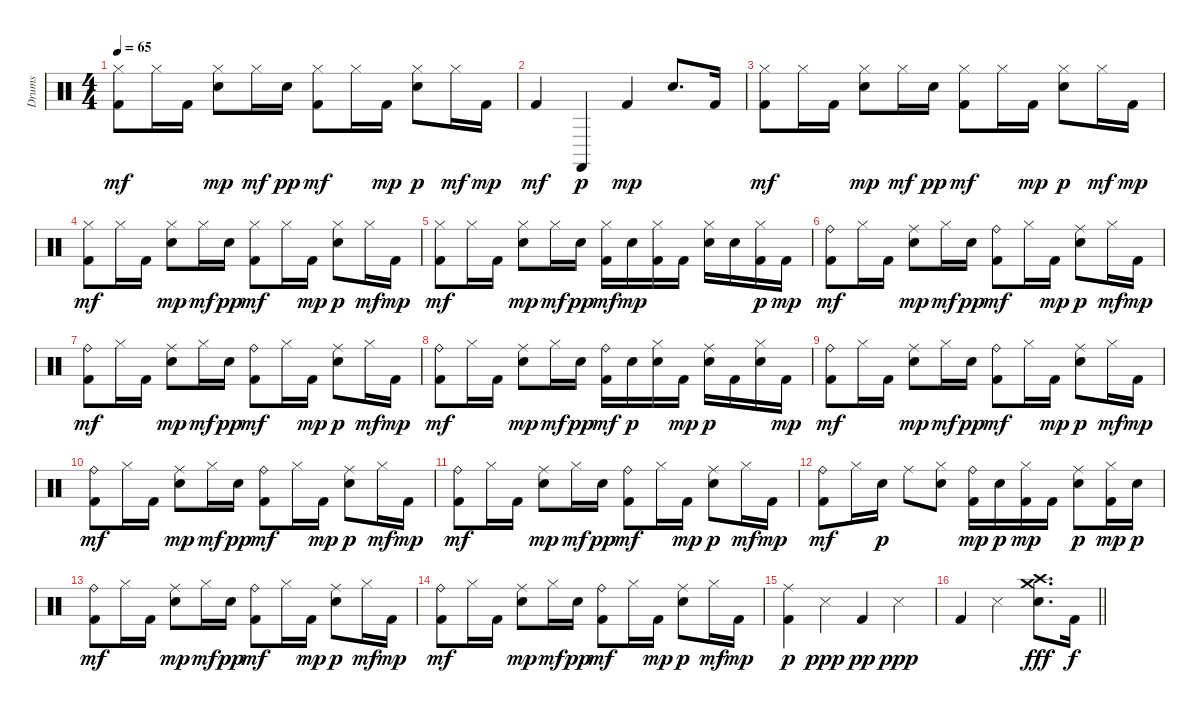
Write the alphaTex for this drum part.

\track ("Drums" "Drums") {instrument percussion}
\staff {score}
\articulation defaults
\ts (4 4)
\tempo 65
\clef neutral
\ks c
("Hi-Hat (closed)" "Kick (hit) 2").8{dy mf} "Hi-Hat (closed)".16 "Kick (hit) 2".16 ("Hi-Hat (closed)" "Electric Snare (hit)").8{dy mp} "Hi-Hat (closed)".16{dy mf} "Electric Snare (hit)".16{dy pp} ("Hi-Hat (closed)" "Kick (hit) 2").8{dy mf} "Hi-Hat (closed)".16 "Kick (hit) 2".16{dy mp} ("Hi-Hat (closed)" "Electric Snare (hit)").8{dy p} "Hi-Hat (closed)".16{dy mf} "Kick (hit) 2".16{dy mp} |
"Kick (hit) 2".4{dy mf} "Castanets (hit)".4{dy p} "Kick (hit) 2".4{dy mp} "Electric Snare (hit)".8{d} "Kick (hit) 2".16 |
("Hi-Hat (closed)" "Kick (hit) 2").8{dy mf} "Hi-Hat (closed)".16 "Kick (hit) 2".16 ("Hi-Hat (closed)" "Electric Snare (hit)").8{dy mp} "Hi-Hat (closed)".16{dy mf} "Electric Snare (hit)".16{dy pp} ("Hi-Hat (closed)" "Kick (hit) 2").8{dy mf} "Hi-Hat (closed)".16 "Kick (hit) 2".16{dy mp} ("Hi-Hat (closed)" "Electric Snare (hit)").8{dy p} "Hi-Hat (closed)".16{dy mf} "Kick (hit) 2".16{dy mp} |
("Hi-Hat (closed)" "Kick (hit) 2").8{dy mf} "Hi-Hat (closed)".16 "Kick (hit) 2".16 ("Hi-Hat (closed)" "Electric Snare (hit)").8{dy mp} "Hi-Hat (closed)".16{dy mf} "Electric Snare (hit)".16{dy pp} ("Hi-Hat (closed)" "Kick (hit) 2").8{dy mf} "Hi-Hat (closed)".16 "Kick (hit) 2".16{dy mp} ("Hi-Hat (closed)" "Electric Snare (hit)").8{dy p} "Hi-Hat (closed)".16{dy mf} "Kick (hit) 2".16{dy mp} |
("Hi-Hat (closed)" "Kick (hit) 2").8{dy mf} "Hi-Hat (closed)".16 "Kick (hit) 2".16 ("Hi-Hat (closed)" "Electric Snare (hit)").8{dy mp} "Hi-Hat (closed)".16{dy mf} "Electric Snare (hit)".16{dy pp} ("Hi-Hat (closed)" "Kick (hit) 2").16{dy mf} "Electric Snare (hit)".16{dy mp} ("Hi-Hat (closed)" "Kick (hit) 2").16 "Kick (hit) 2".16 ("Hi-Hat (closed)" "Electric Snare (hit)").16 "Electric Snare (hit)".16 ("Hi-Hat (closed)" "Kick (hit) 2").16{dy p} "Kick (hit) 2".16{dy mp} |
("Ride (bell)" "Kick (hit) 2").8{dy mf} "Hi-Hat (closed)".16 "Kick (hit) 2".16 ("Ride (middle)" "Electric Snare (hit)").8{dy mp} "Hi-Hat (closed)".16{dy mf} "Electric Snare (hit)".16{dy pp} ("Ride (bell)" "Kick (hit) 2").8{dy mf} "Hi-Hat (closed)".16 "Kick (hit) 2".16{dy mp} ("Ride (middle)" "Electric Snare (hit)").8{dy p} "Hi-Hat (closed)".16{dy mf} "Kick (hit) 2".16{dy mp} |
("Ride (bell)" "Kick (hit) 2").8{dy mf} "Hi-Hat (closed)".16 "Kick (hit) 2".16 ("Ride (middle)" "Electric Snare (hit)").8{dy mp} "Hi-Hat (closed)".16{dy mf} "Electric Snare (hit)".16{dy pp} ("Ride (bell)" "Kick (hit) 2").8{dy mf} "Hi-Hat (closed)".16 "Kick (hit) 2".16{dy mp} ("Ride (middle)" "Electric Snare (hit)").8{dy p} "Hi-Hat (closed)".16{dy mf} "Kick (hit) 2".16{dy mp} |
("Ride (bell)" "Kick (hit) 2").8{dy mf} "Hi-Hat (closed)".16 "Kick (hit) 2".16 ("Ride (middle)" "Electric Snare (hit)").8{dy mp} "Hi-Hat (closed)".16{dy mf} "Electric Snare (hit)".16{dy pp} ("Ride (bell)" "Kick (hit) 2").16{dy mf} "Electric Snare (hit)".16{dy p} ("Hi-Hat (closed)" "Electric Snare (hit)").16 "Kick (hit) 2".16{dy mp} ("Ride (middle)" "Electric Snare (hit)").16{dy p} "Kick (hit) 2".16 ("Hi-Hat (closed)" "Electric Snare (hit)").16 "Kick (hit) 2".16{dy mp} |
("Ride (bell)" "Kick (hit) 2").8{dy mf} "Hi-Hat (closed)".16 "Kick (hit) 2".16 ("Ride (middle)" "Electric Snare (hit)").8{dy mp} "Hi-Hat (closed)".16{dy mf} "Electric Snare (hit)".16{dy pp} ("Ride (bell)" "Kick (hit) 2").8{dy mf} "Hi-Hat (closed)".16 "Kick (hit) 2".16{dy mp} ("Ride (middle)" "Electric Snare (hit)").8{dy p} "Hi-Hat (closed)".16{dy mf} "Kick (hit) 2".16{dy mp} |
("Ride (bell)" "Kick (hit) 2").8{dy mf} "Hi-Hat (closed)".16 "Kick (hit) 2".16 ("Ride (middle)" "Electric Snare (hit)").8{dy mp} "Hi-Hat (closed)".16{dy mf} "Electric Snare (hit)".16{dy pp} ("Ride (bell)" "Kick (hit) 2").8{dy mf} "Hi-Hat (closed)".16 "Kick (hit) 2".16{dy mp} ("Ride (middle)" "Electric Snare (hit)").8{dy p} "Hi-Hat (closed)".16{dy mf} "Kick (hit) 2".16{dy mp} |
("Ride (bell)" "Kick (hit) 2").8{dy mf} "Hi-Hat (closed)".16 "Kick (hit) 2".16 ("Ride (middle)" "Electric Snare (hit)").8{dy mp} "Hi-Hat (closed)".16{dy mf} "Electric Snare (hit)".16{dy pp} ("Ride (bell)" "Kick (hit) 2").8{dy mf} "Hi-Hat (closed)".16 "Kick (hit) 2".16{dy mp} ("Ride (middle)" "Electric Snare (hit)").8{dy p} "Hi-Hat (closed)".16{dy mf} "Kick (hit) 2".16{dy mp} |
("Ride (bell)" "Kick (hit) 2").8{dy mf} "Hi-Hat (closed)".16 "Electric Snare (hit)".16{dy p} "Ride (middle)".8 ("Hi-Hat (closed)" "Electric Snare (hit)").8 ("Ride (bell)" "Kick (hit) 2").16{dy mp} "Electric Snare (hit)".16{dy p} ("Hi-Hat (closed)" "Kick (hit) 2").16{dy mp} "Kick (hit) 2".16 ("Ride (middle)" "Electric Snare (hit)").8{dy p} ("Hi-Hat (closed)" "Kick (hit) 2").16{dy mp} "Electric Snare (hit)".16{dy p} |
("Ride (bell)" "Kick (hit) 2").8{dy mf} "Hi-Hat (closed)".16 "Kick (hit) 2".16 ("Ride (middle)" "Electric Snare (hit)").8{dy mp} "Hi-Hat (closed)".16{dy mf} "Electric Snare (hit)".16{dy pp} ("Ride (bell)" "Kick (hit) 2").8{dy mf} "Hi-Hat (closed)".16 "Kick (hit) 2".16{dy mp} ("Ride (middle)" "Electric Snare (hit)").8{dy p} "Hi-Hat (closed)".16{dy mf} "Kick (hit) 2".16{dy mp} |
("Ride (bell)" "Kick (hit) 2").8{dy mf} "Hi-Hat (closed)".16 "Kick (hit) 2".16 ("Ride (middle)" "Electric Snare (hit)").8{dy mp} "Hi-Hat (closed)".16{dy mf} "Electric Snare (hit)".16{dy pp} ("Ride (bell)" "Kick (hit) 2").8{dy mf} "Hi-Hat (closed)".16 "Kick (hit) 2".16{dy mp} ("Ride (middle)" "Electric Snare (hit)").8{dy p} "Hi-Hat (closed)".16{dy mf} "Kick (hit) 2".16{dy mp} |
("Ride (middle)" "Kick (hit) 2").4{dy p} "Snare (side stick) 3".4{dy ppp} "Kick (hit) 2".4{dy pp} "Snare (side stick) 3".4{dy ppp} |
\barLineRight lightlight "Kick (hit) 2".4 "Snare (side stick) 3".2
("Crash medium (hit)" "Crash high (hit)" "Electric Snare (hit)").8{d dy fff} "Kick (hit) 2".16{dy f}
